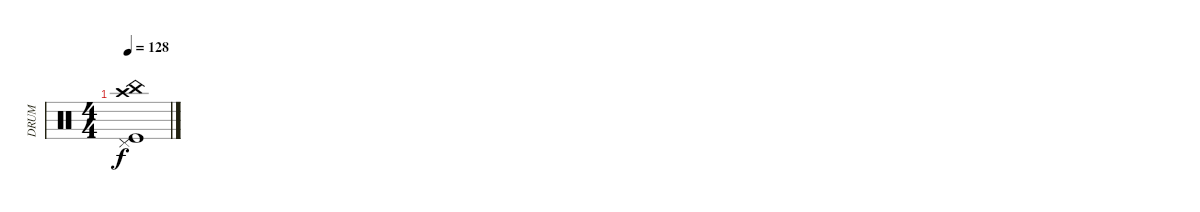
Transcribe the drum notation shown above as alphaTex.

\track ("DRUM" "DRUM") {instrument percussion}
\staff {score}
\articulation defaults
\ts (4 4)
\tempo 128
\clef neutral
\ks c
("Pedal Hi-Hat (hit)" "China (hit)" "Crash high (hit)" "Kick (hit)").1{dy f}
